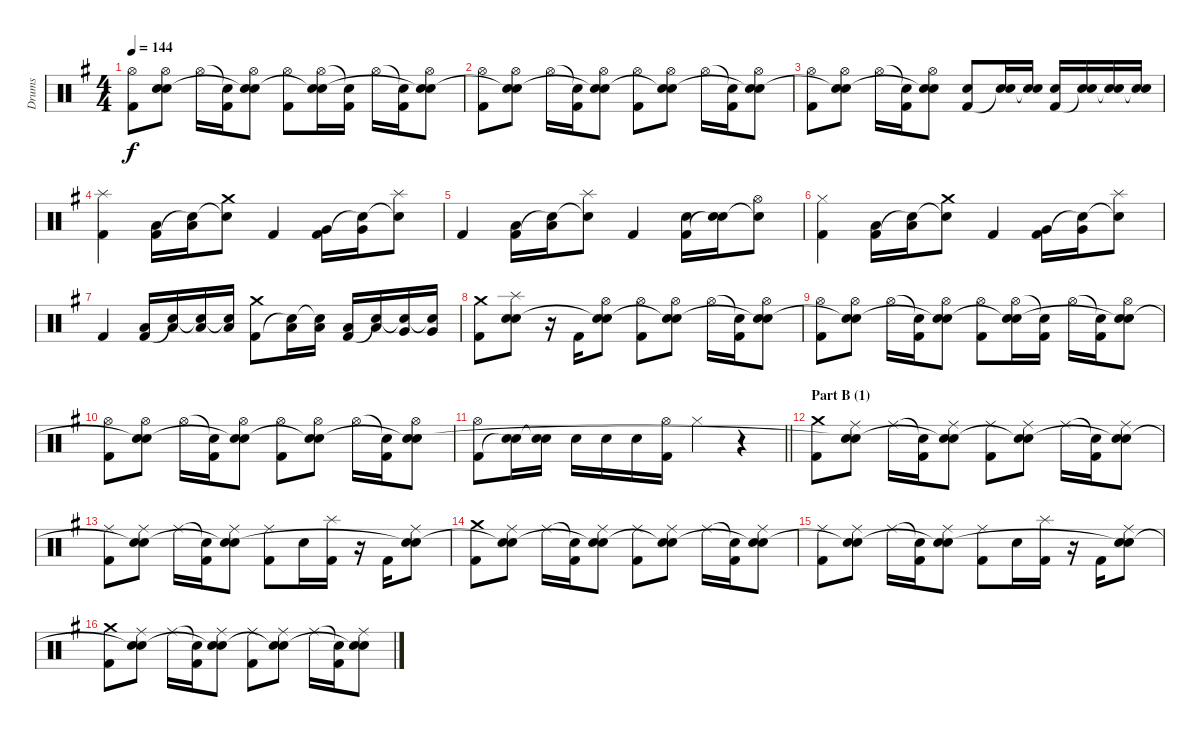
\track ("Drums" "Drums") {instrument percussion}
\staff {score}
\articulation defaults
\ts (4 4)
\tempo 144
\clef neutral
\ks g
("Hi-Hat (open)" "Kick (hit) 2").8{dy f} ("Hi-Hat (open)" "Electric Snare (hit)" "Snare (hit)"{t}).8 "Hi-Hat (open)".16 ("Snare (hit)"{t} "Kick (hit) 2").16 ("Hi-Hat (open)" "Electric Snare (hit)" "Snare (hit)"{t}).8 ("Hi-Hat (open)" "Kick (hit) 2").8 ("Hi-Hat (open)" "Electric Snare (hit)" "Snare (hit)"{t}).16 ("Snare (hit)"{t} "Kick (hit) 2").16 "Hi-Hat (open)".16 ("Snare (hit)"{t} "Kick (hit) 2").16 ("Hi-Hat (open)" "Electric Snare (hit)" "Snare (hit)"{t}).8 |
("Hi-Hat (open)" "Kick (hit) 2").8 ("Hi-Hat (open)" "Electric Snare (hit)" "Snare (hit)"{t}).8 "Hi-Hat (open)".16 ("Snare (hit)"{t} "Kick (hit) 2").16 ("Hi-Hat (open)" "Electric Snare (hit)" "Snare (hit)"{t}).8 ("Hi-Hat (open)" "Kick (hit) 2").8 ("Hi-Hat (open)" "Electric Snare (hit)" "Snare (hit)"{t}).8 "Hi-Hat (open)".16 ("Snare (hit)"{t} "Kick (hit) 2").16 ("Hi-Hat (open)" "Electric Snare (hit)" "Snare (hit)"{t}).8 |
("Hi-Hat (open)" "Kick (hit) 2").8 ("Hi-Hat (open)" "Electric Snare (hit)" "Snare (hit)"{t}).8 "Hi-Hat (open)".16 ("Snare (hit)"{t} "Kick (hit) 2").16 ("Hi-Hat (open)" "Electric Snare (hit)" "Snare (hit)"{t}).8 ("Electric Snare (hit)" "Kick (hit) 2").8 ("Electric Snare (hit)" "Snare (hit)"{t}).16 ("Electric Snare (hit)" "Snare (hit)"{t}).16 ("Electric Snare (hit)" "Kick (hit) 2").16 ("Electric Snare (hit)" "Snare (hit)"{t}).16 ("Electric Snare (hit)" "Snare (hit)"{t}).16 ("Electric Snare (hit)" "Snare (hit)"{t}).16 |
("Splash (hit)" "Kick (hit) 2").4 ("Low Tom (hit)" "Kick (hit) 2").16 ("Low Tom (hit)" "Snare (hit)"{t}).16 ("Crash medium (hit)" "Snare (hit)"{t}).8 "Kick (hit) 2".4 ("Very Low Tom (hit)" "Kick (hit) 2").16 ("Very Low Tom (hit)" "Snare (hit)"{t}).16 ("Splash (hit)" "Snare (hit)"{t}).8 |
"Kick (hit) 2".4 ("Low Floor Tom (hit)" "Kick (hit) 2").16 ("Low Floor Tom (hit)" "Snare (hit)"{t}).16 ("Splash (hit)" "Snare (hit)"{t}).8 "Kick (hit) 2".4 ("Electric Snare (hit)" "Kick (hit) 2").16 ("Electric Snare (hit)" "Snare (hit)"{t}).16 ("Hi-Hat (open)" "Snare (hit)"{t}).8 |
("Hi-Hat (closed)" "Kick (hit) 2").4 ("Low Tom (hit)" "Kick (hit) 2").16 ("Low Tom (hit)" "Snare (hit)"{t}).16 ("Crash medium (hit)" "Snare (hit)"{t}).8 "Kick (hit) 2".4 ("Very Low Tom (hit)" "Kick (hit) 2").16 ("Very Low Tom (hit)" "Snare (hit)"{t}).16 ("Splash (hit)" "Snare (hit)"{t}).8 |
"Kick (hit) 2".4 ("Low Floor Tom (hit)" "Kick (hit) 2").16 ("Low Floor Tom (hit)" "Snare (hit)"{t}).16 ("Low Floor Tom (hit)" "Snare (hit)"{t}).16 ("Low Floor Tom (hit)" "Snare (hit)"{t}).16 ("Crash medium (hit)" "Kick (hit) 2").8 ("Low Tom (hit)" "Snare (hit)"{t}).16 ("Low Tom (hit)" "Snare (hit)"{t}).16 ("Low Tom (hit)" "Kick (hit) 2").16 ("Low Tom (hit)" "Snare (hit)"{t}).16 ("Very Low Tom (hit)" "Snare (hit)"{t}).16 ("Very Low Tom (hit)" "Snare (hit)"{t}).16 |
("Crash medium (hit)" "Kick (hit) 2").8 ("Splash (hit)" "Electric Snare (hit)" "Snare (hit)").8 r.16 "Kick (hit) 2".16 ("Hi-Hat (open)" "Electric Snare (hit)" "Snare (hit)"{t}).8 ("Hi-Hat (open)" "Kick (hit) 2").8 ("Hi-Hat (open)" "Electric Snare (hit)" "Snare (hit)"{t}).8 "Hi-Hat (open)".16 ("Snare (hit)"{t} "Kick (hit) 2").16 ("Hi-Hat (open)" "Electric Snare (hit)" "Snare (hit)"{t}).8 |
("Hi-Hat (open)" "Kick (hit) 2").8 ("Hi-Hat (open)" "Electric Snare (hit)" "Snare (hit)"{t}).8 "Hi-Hat (open)".16 ("Snare (hit)"{t} "Kick (hit) 2").16 ("Hi-Hat (open)" "Electric Snare (hit)" "Snare (hit)"{t}).8 ("Hi-Hat (open)" "Kick (hit) 2").8 ("Hi-Hat (open)" "Electric Snare (hit)" "Snare (hit)"{t}).16 ("Snare (hit)"{t} "Kick (hit) 2").16 "Hi-Hat (open)".16 ("Snare (hit)"{t} "Kick (hit) 2").16 ("Hi-Hat (open)" "Electric Snare (hit)" "Snare (hit)"{t}).8 |
("Hi-Hat (open)" "Kick (hit) 2").8 ("Hi-Hat (open)" "Electric Snare (hit)" "Snare (hit)"{t}).8 "Hi-Hat (open)".16 ("Snare (hit)"{t} "Kick (hit) 2").16 ("Hi-Hat (open)" "Electric Snare (hit)" "Snare (hit)"{t}).8 ("Hi-Hat (open)" "Kick (hit) 2").8 ("Hi-Hat (open)" "Electric Snare (hit)" "Snare (hit)"{t}).8 "Hi-Hat (open)".16 ("Snare (hit)"{t} "Kick (hit) 2").16 ("Hi-Hat (open)" "Electric Snare (hit)" "Snare (hit)"{t}).8 |
\barLineRight lightlight
("Hi-Hat (open)" "Kick (hit) 2").8 ("Electric Snare (hit)" "Snare (hit)"{t}).16 ("Electric Snare (hit)" "Snare (hit)"{t}).16 "Electric Snare (hit)".16 "Electric Snare (hit)".16 "Electric Snare (hit)".16 ("Hi-Hat (open)" "Kick (hit) 2").16 "Hi-Hat (closed)".4 r.4 |
\section ("" "Part B (1)")
("Crash medium (hit)" "Kick (hit) 2").8 ("Ride (middle)" "Electric Snare (hit)" "Snare (hit)"{t}).8 "Ride (middle)".16 ("Snare (hit)"{t} "Kick (hit) 2").16 ("Ride (middle)" "Electric Snare (hit)" "Snare (hit)"{t}).8 ("Ride (middle)" "Kick (hit) 2").8 ("Ride (middle)" "Electric Snare (hit)" "Snare (hit)"{t}).8 "Ride (middle)".16 ("Snare (hit)"{t} "Kick (hit) 2").16 ("Ride (middle)" "Electric Snare (hit)" "Snare (hit)"{t}).8 |
("Ride (middle)" "Kick (hit) 2").8 ("Ride (middle)" "Electric Snare (hit)" "Snare (hit)"{t}).8 "Ride (middle)".16 ("Snare (hit)"{t} "Kick (hit) 2").16 ("Ride (middle)" "Electric Snare (hit)" "Snare (hit)"{t}).8 ("Ride (middle)" "Kick (hit) 2").8 "Electric Snare (hit)".16 ("Splash (hit)" "Kick (hit) 2").16 r.16 "Kick (hit) 2".16 ("Ride (middle)" "Electric Snare (hit)" "Snare (hit)"{t}).8 |
("Crash medium (hit)" "Kick (hit) 2").8 ("Ride (middle)" "Electric Snare (hit)" "Snare (hit)"{t}).8 "Ride (middle)".16 ("Snare (hit)"{t} "Kick (hit) 2").16 ("Ride (middle)" "Electric Snare (hit)" "Snare (hit)"{t}).8 ("Ride (middle)" "Kick (hit) 2").8 ("Ride (middle)" "Electric Snare (hit)" "Snare (hit)"{t}).8 "Ride (middle)".16 ("Snare (hit)"{t} "Kick (hit) 2").16 ("Ride (middle)" "Electric Snare (hit)" "Snare (hit)"{t}).8 |
("Ride (middle)" "Kick (hit) 2").8 ("Ride (middle)" "Electric Snare (hit)" "Snare (hit)"{t}).8 "Ride (middle)".16 ("Snare (hit)"{t} "Kick (hit) 2").16 ("Ride (middle)" "Electric Snare (hit)" "Snare (hit)"{t}).8 ("Ride (middle)" "Kick (hit) 2").8 "Electric Snare (hit)".16 ("Splash (hit)" "Kick (hit) 2").16 r.16 "Kick (hit) 2".16 ("Ride (middle)" "Electric Snare (hit)" "Snare (hit)"{t}).8 |
("Crash medium (hit)" "Kick (hit) 2").8 ("Ride (middle)" "Electric Snare (hit)" "Snare (hit)"{t}).8 "Ride (middle)".16 ("Snare (hit)"{t} "Kick (hit) 2").16 ("Ride (middle)" "Electric Snare (hit)" "Snare (hit)"{t}).8 ("Ride (middle)" "Kick (hit) 2").8 ("Ride (middle)" "Electric Snare (hit)" "Snare (hit)"{t}).8 "Ride (middle)".16 ("Snare (hit)"{t} "Kick (hit) 2").16 ("Ride (middle)" "Electric Snare (hit)" "Snare (hit)"{t}).8
